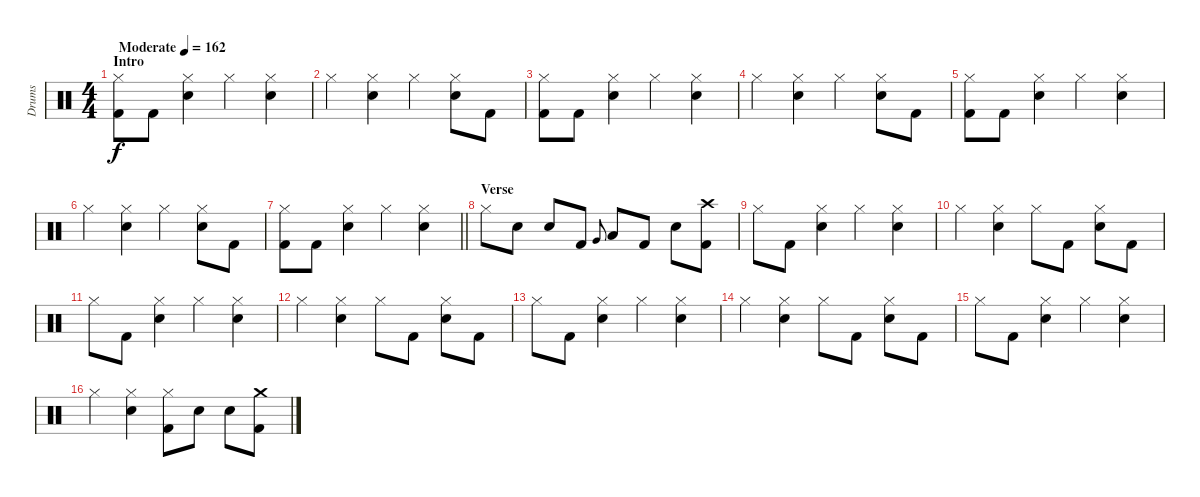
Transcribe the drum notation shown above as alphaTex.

\track ("Drums" "Drums") {instrument percussion}
\staff {score}
\articulation defaults
\ts (4 4)
\section ("" "Intro")
\tempo (162 "Moderate")
\clef neutral
\ks c
("Hi-Hat (closed)" "Kick (hit) 2").8{dy f} "Kick (hit) 2".8 ("Snare (hit) 2" "Hi-Hat (closed)").4 "Hi-Hat (closed)".4 ("Snare (hit) 2" "Hi-Hat (closed)").4 |
"Hi-Hat (closed)".4 ("Snare (hit) 2" "Hi-Hat (closed)").4 "Hi-Hat (closed)".4 ("Snare (hit) 2" "Hi-Hat (closed)").8 "Kick (hit) 2".8 |
("Hi-Hat (closed)" "Kick (hit) 2").8 "Kick (hit) 2".8 ("Snare (hit) 2" "Hi-Hat (closed)").4 "Hi-Hat (closed)".4 ("Snare (hit) 2" "Hi-Hat (closed)").4 |
"Hi-Hat (closed)".4 ("Snare (hit) 2" "Hi-Hat (closed)").4 "Hi-Hat (closed)".4 ("Snare (hit) 2" "Hi-Hat (closed)").8 "Kick (hit) 2".8 |
("Hi-Hat (closed)" "Kick (hit) 2").8 "Kick (hit) 2".8 ("Snare (hit) 2" "Hi-Hat (closed)").4 "Hi-Hat (closed)".4 ("Snare (hit) 2" "Hi-Hat (closed)").4 |
"Hi-Hat (closed)".4 ("Snare (hit) 2" "Hi-Hat (closed)").4 "Hi-Hat (closed)".4 ("Snare (hit) 2" "Hi-Hat (closed)").8 "Kick (hit) 2".8 |
\barLineRight lightlight
("Hi-Hat (closed)" "Kick (hit) 2").8 "Kick (hit) 2".8 ("Snare (hit) 2" "Hi-Hat (closed)").4 "Hi-Hat (closed)".4 ("Snare (hit) 2" "Hi-Hat (closed)").4 |
\section ("" "Verse")
"Hi-Hat (closed)".8 "Snare (hit) 2".8 "Snare (hit) 2".8 "Kick (hit) 2".8 "Very Low Tom (hit)".8{gr onbeat} "Low Tom (hit)".8 "Kick (hit) 2".8 "Snare (hit) 2".8 ("Crash high (hit)" "Kick (hit) 2").8 |
"Hi-Hat (closed)".8 "Kick (hit) 2".8 ("Snare (hit) 2" "Hi-Hat (closed)").4 "Hi-Hat (closed)".4 ("Snare (hit) 2" "Hi-Hat (closed)").4 |
"Hi-Hat (closed)".4 ("Snare (hit) 2" "Hi-Hat (closed)").4 "Hi-Hat (closed)".8 "Kick (hit) 2".8 ("Snare (hit) 2" "Hi-Hat (closed)").8 "Kick (hit) 2".8 |
"Hi-Hat (closed)".8 "Kick (hit) 2".8 ("Snare (hit) 2" "Hi-Hat (closed)").4 "Hi-Hat (closed)".4 ("Snare (hit) 2" "Hi-Hat (closed)").4 |
"Hi-Hat (closed)".4 ("Snare (hit) 2" "Hi-Hat (closed)").4 "Hi-Hat (closed)".8 "Kick (hit) 2".8 ("Snare (hit) 2" "Hi-Hat (closed)").8 "Kick (hit) 2".8 |
"Hi-Hat (closed)".8 "Kick (hit) 2".8 ("Snare (hit) 2" "Hi-Hat (closed)").4 "Hi-Hat (closed)".4 ("Snare (hit) 2" "Hi-Hat (closed)").4 |
"Hi-Hat (closed)".4 ("Snare (hit) 2" "Hi-Hat (closed)").4 "Hi-Hat (closed)".8 "Kick (hit) 2".8 ("Snare (hit) 2" "Hi-Hat (closed)").8 "Kick (hit) 2".8 |
"Hi-Hat (closed)".8 "Kick (hit) 2".8 ("Snare (hit) 2" "Hi-Hat (closed)").4 "Hi-Hat (closed)".4 ("Snare (hit) 2" "Hi-Hat (closed)").4 |
"Hi-Hat (closed)".4 ("Snare (hit) 2" "Hi-Hat (closed)").4 ("Hi-Hat (closed)" "Kick (hit) 2").8 "Snare (hit) 2".8 "Snare (hit) 2".8 ("Crash medium (hit)" "Kick (hit) 2").8
